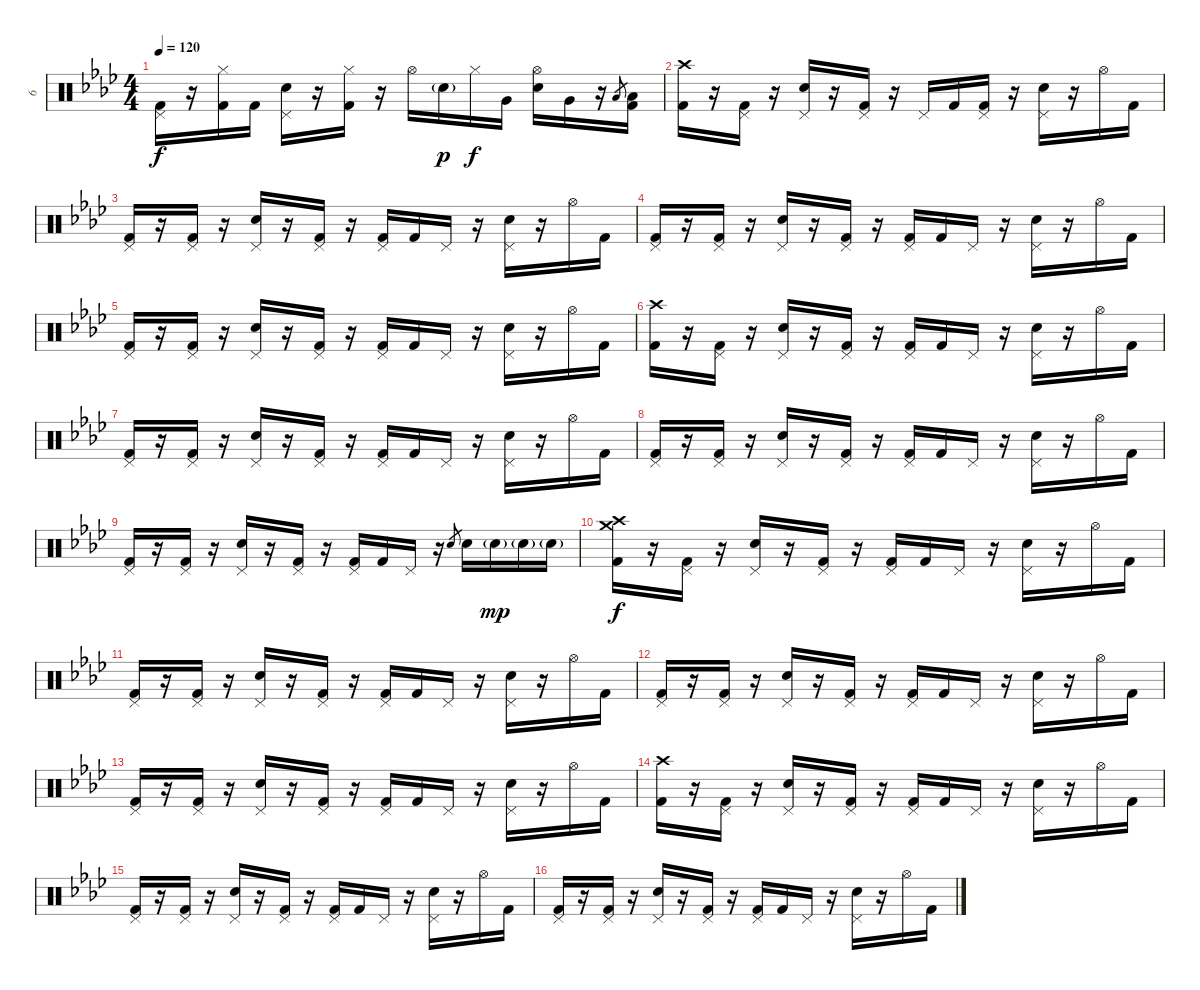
\track ("6" "6") {instrument percussion}
\staff {score}
\articulation defaults
\ts (4 4)
\tempo 120
\clef neutral
\ks fminor
("Pedal Hi-Hat (hit)" "Kick (hit) 2").16{dy f} r.16 ("Hi-Hat (closed)" "Kick (hit) 2").16 "Kick (hit) 2".16 ("Pedal Hi-Hat (hit)" "Electric Snare (hit)").16 r.16 ("Hi-Hat (closed)" "Kick (hit) 2").16 r.16 "Hi-Hat (open)".16 "Electric Snare (hit)"{g}.16{dy p} "Hi-Hat (closed)".16{dy f} "Very Low Tom (hit)".16 ("Hi-Hat (open)" "Electric Snare (hit)").16 "Very Low Tom (hit)".16 r.16 "Low Floor Tom (hit)".8{gr} ("Low Tom (hit)" "Kick (hit) 2").16 |
("Crash high (hit)" "Kick (hit) 2").16 r.16 ("Pedal Hi-Hat (hit)" "Kick (hit) 2").16 r.16 ("Pedal Hi-Hat (hit)" "Electric Snare (hit)").16 r.16 ("Pedal Hi-Hat (hit)" "Kick (hit) 2").16 r.16 "Pedal Hi-Hat (hit)".16 "Kick (hit) 2".16 ("Pedal Hi-Hat (hit)" "Kick (hit) 2").16 r.16 ("Pedal Hi-Hat (hit)" "Electric Snare (hit)").16 r.16 "Hi-Hat (open)".16 "Kick (hit) 2".16 |
("Pedal Hi-Hat (hit)" "Kick (hit) 2").16 r.16 ("Pedal Hi-Hat (hit)" "Kick (hit) 2").16 r.16 ("Pedal Hi-Hat (hit)" "Electric Snare (hit)").16 r.16 ("Pedal Hi-Hat (hit)" "Kick (hit) 2").16 r.16 ("Pedal Hi-Hat (hit)" "Kick (hit) 2").16 "Kick (hit) 2".16 "Pedal Hi-Hat (hit)".16 r.16 ("Pedal Hi-Hat (hit)" "Electric Snare (hit)").16 r.16 "Hi-Hat (open)".16 "Kick (hit) 2".16 |
("Pedal Hi-Hat (hit)" "Kick (hit) 2").16 r.16 ("Pedal Hi-Hat (hit)" "Kick (hit) 2").16 r.16 ("Pedal Hi-Hat (hit)" "Electric Snare (hit)").16 r.16 ("Pedal Hi-Hat (hit)" "Kick (hit) 2").16 r.16 ("Pedal Hi-Hat (hit)" "Kick (hit) 2").16 "Kick (hit) 2".16 "Pedal Hi-Hat (hit)".16 r.16 ("Pedal Hi-Hat (hit)" "Electric Snare (hit)").16 r.16 "Hi-Hat (open)".16 "Kick (hit) 2".16 |
("Pedal Hi-Hat (hit)" "Kick (hit) 2").16 r.16 ("Pedal Hi-Hat (hit)" "Kick (hit) 2").16 r.16 ("Pedal Hi-Hat (hit)" "Electric Snare (hit)").16 r.16 ("Pedal Hi-Hat (hit)" "Kick (hit) 2").16 r.16 ("Pedal Hi-Hat (hit)" "Kick (hit) 2").16 "Kick (hit) 2".16 "Pedal Hi-Hat (hit)".16 r.16 ("Pedal Hi-Hat (hit)" "Electric Snare (hit)").16 r.16 "Hi-Hat (open)".16 "Kick (hit) 2".16 |
("Crash high (hit)" "Kick (hit) 2").16 r.16 ("Pedal Hi-Hat (hit)" "Kick (hit) 2").16 r.16 ("Pedal Hi-Hat (hit)" "Electric Snare (hit)").16 r.16 ("Pedal Hi-Hat (hit)" "Kick (hit) 2").16 r.16 ("Pedal Hi-Hat (hit)" "Kick (hit) 2").16 "Kick (hit) 2".16 "Pedal Hi-Hat (hit)".16 r.16 ("Pedal Hi-Hat (hit)" "Electric Snare (hit)").16 r.16 "Hi-Hat (open)".16 "Kick (hit) 2".16 |
("Pedal Hi-Hat (hit)" "Kick (hit) 2").16 r.16 ("Pedal Hi-Hat (hit)" "Kick (hit) 2").16 r.16 ("Pedal Hi-Hat (hit)" "Electric Snare (hit)").16 r.16 ("Pedal Hi-Hat (hit)" "Kick (hit) 2").16 r.16 ("Pedal Hi-Hat (hit)" "Kick (hit) 2").16 "Kick (hit) 2".16 "Pedal Hi-Hat (hit)".16 r.16 ("Pedal Hi-Hat (hit)" "Electric Snare (hit)").16 r.16 "Hi-Hat (open)".16 "Kick (hit) 2".16 |
("Pedal Hi-Hat (hit)" "Kick (hit) 2").16 r.16 ("Pedal Hi-Hat (hit)" "Kick (hit) 2").16 r.16 ("Pedal Hi-Hat (hit)" "Electric Snare (hit)").16 r.16 ("Pedal Hi-Hat (hit)" "Kick (hit) 2").16 r.16 ("Pedal Hi-Hat (hit)" "Kick (hit) 2").16 "Kick (hit) 2".16 "Pedal Hi-Hat (hit)".16 r.16 ("Pedal Hi-Hat (hit)" "Electric Snare (hit)").16 r.16 "Hi-Hat (open)".16 "Kick (hit) 2".16 |
("Pedal Hi-Hat (hit)" "Kick (hit) 2").16 r.16 ("Pedal Hi-Hat (hit)" "Kick (hit) 2").16 r.16 ("Pedal Hi-Hat (hit)" "Electric Snare (hit)").16 r.16 ("Pedal Hi-Hat (hit)" "Kick (hit) 2").16 r.16 ("Pedal Hi-Hat (hit)" "Kick (hit) 2").16 "Kick (hit) 2".16 "Pedal Hi-Hat (hit)".16 r.16 "Electric Snare (hit)".8{gr} "Electric Snare (hit)".16 "Electric Snare (hit)"{g}.16{dy mp} "Electric Snare (hit)"{g}.16 "Electric Snare (hit)"{g}.16 |
("Crash medium (hit)" "Crash high (hit)" "Kick (hit) 2").16{dy f} r.16 ("Pedal Hi-Hat (hit)" "Kick (hit) 2").16 r.16 ("Pedal Hi-Hat (hit)" "Electric Snare (hit)").16 r.16 ("Pedal Hi-Hat (hit)" "Kick (hit) 2").16 r.16 ("Pedal Hi-Hat (hit)" "Kick (hit) 2").16 "Kick (hit) 2".16 "Pedal Hi-Hat (hit)".16 r.16 ("Pedal Hi-Hat (hit)" "Electric Snare (hit)").16 r.16 "Hi-Hat (open)".16 "Kick (hit) 2".16 |
("Pedal Hi-Hat (hit)" "Kick (hit) 2").16 r.16 ("Pedal Hi-Hat (hit)" "Kick (hit) 2").16 r.16 ("Pedal Hi-Hat (hit)" "Electric Snare (hit)").16 r.16 ("Pedal Hi-Hat (hit)" "Kick (hit) 2").16 r.16 ("Pedal Hi-Hat (hit)" "Kick (hit) 2").16 "Kick (hit) 2".16 "Pedal Hi-Hat (hit)".16 r.16 ("Pedal Hi-Hat (hit)" "Electric Snare (hit)").16 r.16 "Hi-Hat (open)".16 "Kick (hit) 2".16 |
("Pedal Hi-Hat (hit)" "Kick (hit) 2").16 r.16 ("Pedal Hi-Hat (hit)" "Kick (hit) 2").16 r.16 ("Pedal Hi-Hat (hit)" "Electric Snare (hit)").16 r.16 ("Pedal Hi-Hat (hit)" "Kick (hit) 2").16 r.16 ("Pedal Hi-Hat (hit)" "Kick (hit) 2").16 "Kick (hit) 2".16 "Pedal Hi-Hat (hit)".16 r.16 ("Pedal Hi-Hat (hit)" "Electric Snare (hit)").16 r.16 "Hi-Hat (open)".16 "Kick (hit) 2".16 |
("Pedal Hi-Hat (hit)" "Kick (hit) 2").16 r.16 ("Pedal Hi-Hat (hit)" "Kick (hit) 2").16 r.16 ("Pedal Hi-Hat (hit)" "Electric Snare (hit)").16 r.16 ("Pedal Hi-Hat (hit)" "Kick (hit) 2").16 r.16 ("Pedal Hi-Hat (hit)" "Kick (hit) 2").16 "Kick (hit) 2".16 "Pedal Hi-Hat (hit)".16 r.16 ("Pedal Hi-Hat (hit)" "Electric Snare (hit)").16 r.16 "Hi-Hat (open)".16 "Kick (hit) 2".16 |
("Crash high (hit)" "Kick (hit) 2").16 r.16 ("Pedal Hi-Hat (hit)" "Kick (hit) 2").16 r.16 ("Pedal Hi-Hat (hit)" "Electric Snare (hit)").16 r.16 ("Pedal Hi-Hat (hit)" "Kick (hit) 2").16 r.16 ("Pedal Hi-Hat (hit)" "Kick (hit) 2").16 "Kick (hit) 2".16 "Pedal Hi-Hat (hit)".16 r.16 ("Pedal Hi-Hat (hit)" "Electric Snare (hit)").16 r.16 "Hi-Hat (open)".16 "Kick (hit) 2".16 |
("Pedal Hi-Hat (hit)" "Kick (hit) 2").16 r.16 ("Pedal Hi-Hat (hit)" "Kick (hit) 2").16 r.16 ("Pedal Hi-Hat (hit)" "Electric Snare (hit)").16 r.16 ("Pedal Hi-Hat (hit)" "Kick (hit) 2").16 r.16 ("Pedal Hi-Hat (hit)" "Kick (hit) 2").16 "Kick (hit) 2".16 "Pedal Hi-Hat (hit)".16 r.16 ("Pedal Hi-Hat (hit)" "Electric Snare (hit)").16 r.16 "Hi-Hat (open)".16 "Kick (hit) 2".16 |
("Pedal Hi-Hat (hit)" "Kick (hit) 2").16 r.16 ("Pedal Hi-Hat (hit)" "Kick (hit) 2").16 r.16 ("Pedal Hi-Hat (hit)" "Electric Snare (hit)").16 r.16 ("Pedal Hi-Hat (hit)" "Kick (hit) 2").16 r.16 ("Pedal Hi-Hat (hit)" "Kick (hit) 2").16 "Kick (hit) 2".16 "Pedal Hi-Hat (hit)".16 r.16 ("Pedal Hi-Hat (hit)" "Electric Snare (hit)").16 r.16 "Hi-Hat (open)".16 "Kick (hit) 2".16
